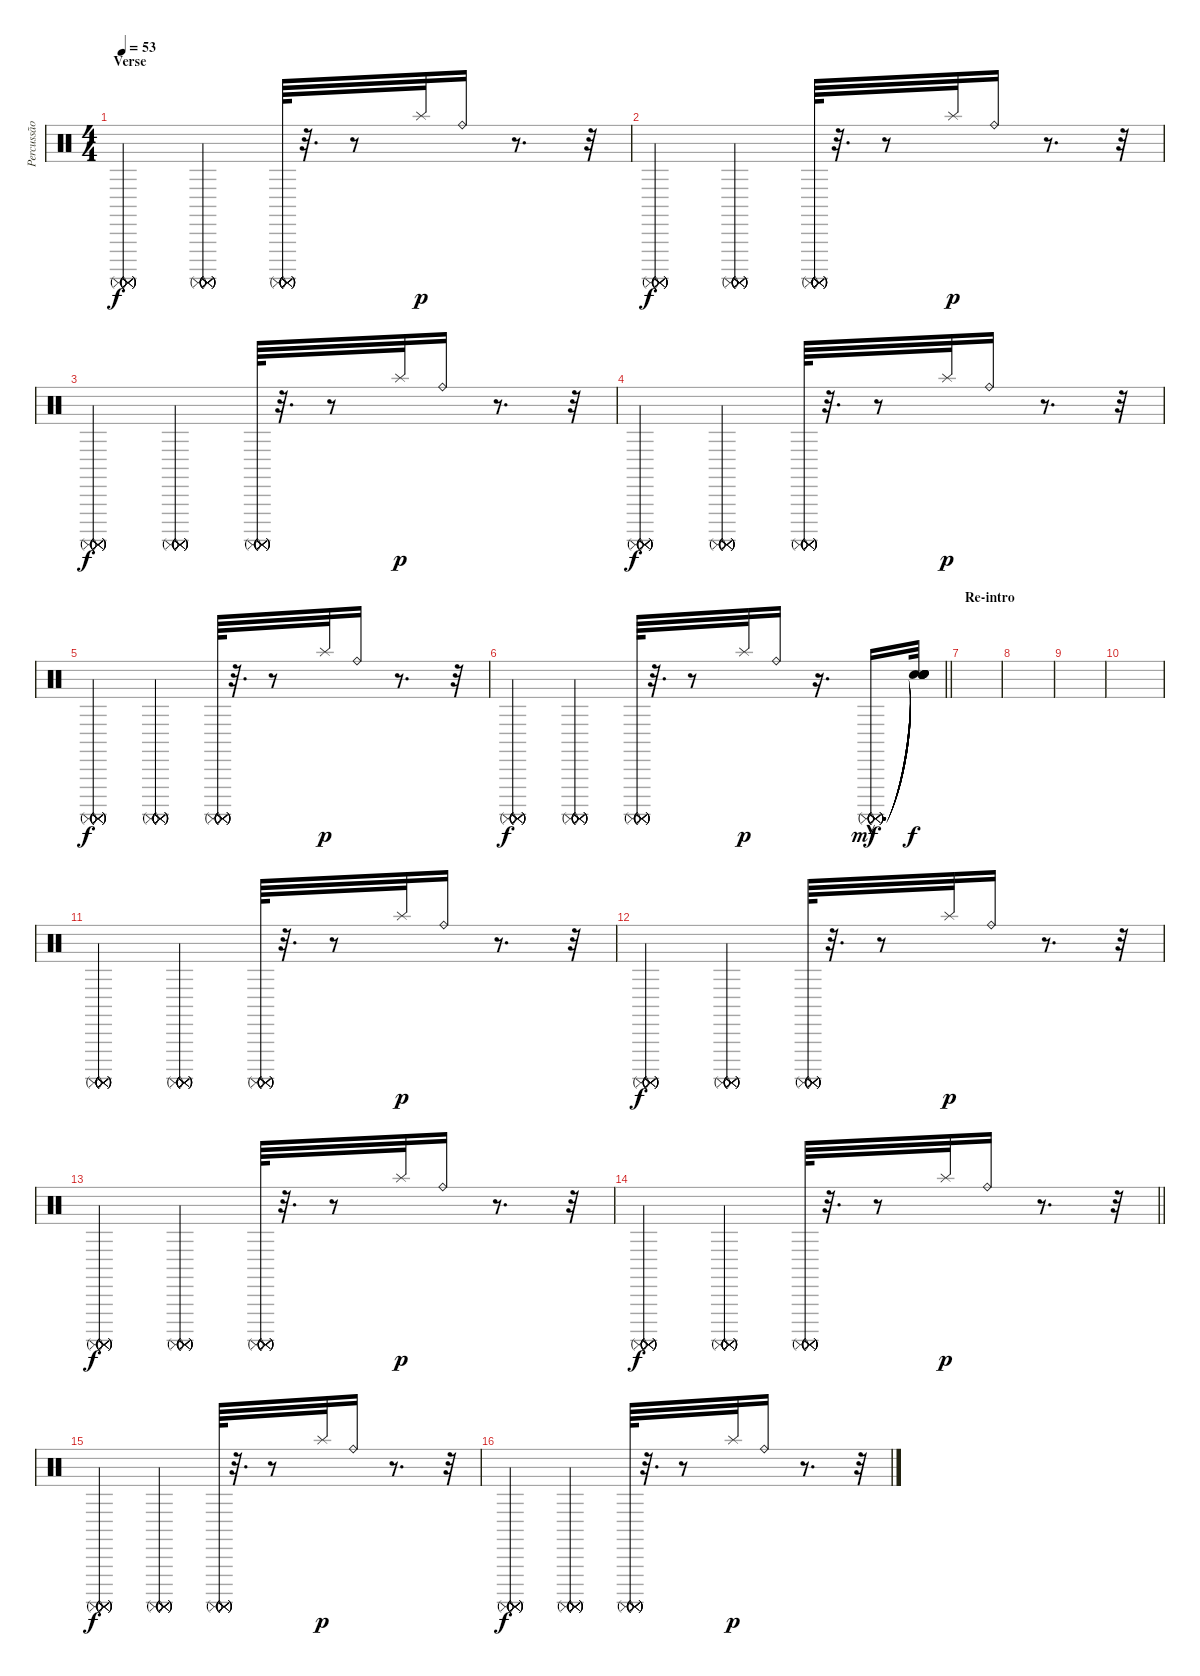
\track ("Percussão" "Percussão") {instrument percussion}
\staff {score}
\articulation defaults
\ts (4 4)
\section ("" "Verse")
\tempo 53
\clef neutral
\ks c
("Surdo (mute)" "Surdo (mute)" "Surdo (mute)" "Surdo (mute)" "Surdo (mute)" "Surdo (mute)").4{dy f} ("Surdo (mute)" "Surdo (mute)" "Surdo (mute)" "Surdo (mute)" "Surdo (mute)" "Surdo (mute)").4 ("Surdo (mute)" "Surdo (mute)" "Surdo (mute)" "Surdo (mute)" "Surdo (mute)" "Surdo (mute)").64 r.32{d} r.8 "Splash (hit)".32{dy p} "Ride (bell)".16 r.8{d} r.32 |
("Surdo (mute)" "Surdo (mute)" "Surdo (mute)" "Surdo (mute)" "Surdo (mute)" "Surdo (mute)").4{dy f} ("Surdo (mute)" "Surdo (mute)" "Surdo (mute)" "Surdo (mute)" "Surdo (mute)" "Surdo (mute)").4 ("Surdo (mute)" "Surdo (mute)" "Surdo (mute)" "Surdo (mute)" "Surdo (mute)" "Surdo (mute)").64 r.32{d} r.8 "Splash (hit)".32{dy p} "Ride (bell)".16 r.8{d} r.32 |
("Surdo (mute)" "Surdo (mute)" "Surdo (mute)" "Surdo (mute)" "Surdo (mute)" "Surdo (mute)").4{dy f} ("Surdo (mute)" "Surdo (mute)" "Surdo (mute)" "Surdo (mute)" "Surdo (mute)" "Surdo (mute)").4 ("Surdo (mute)" "Surdo (mute)" "Surdo (mute)" "Surdo (mute)" "Surdo (mute)" "Surdo (mute)").64 r.32{d} r.8 "Splash (hit)".32{dy p} "Ride (bell)".16 r.8{d} r.32 |
("Surdo (mute)" "Surdo (mute)" "Surdo (mute)" "Surdo (mute)" "Surdo (mute)" "Surdo (mute)").4{dy f} ("Surdo (mute)" "Surdo (mute)" "Surdo (mute)" "Surdo (mute)" "Surdo (mute)" "Surdo (mute)").4 ("Surdo (mute)" "Surdo (mute)" "Surdo (mute)" "Surdo (mute)" "Surdo (mute)" "Surdo (mute)").64 r.32{d} r.8 "Splash (hit)".32{dy p} "Ride (bell)".16 r.8{d} r.32 |
("Surdo (mute)" "Surdo (mute)" "Surdo (mute)" "Surdo (mute)" "Surdo (mute)" "Surdo (mute)").4{dy f} ("Surdo (mute)" "Surdo (mute)" "Surdo (mute)" "Surdo (mute)" "Surdo (mute)" "Surdo (mute)").4 ("Surdo (mute)" "Surdo (mute)" "Surdo (mute)" "Surdo (mute)" "Surdo (mute)" "Surdo (mute)").64 r.32{d} r.8 "Splash (hit)".32{dy p} "Ride (bell)".16 r.8{d} r.32 |
\barLineRight lightlight
("Surdo (mute)" "Surdo (mute)" "Surdo (mute)" "Surdo (mute)" "Surdo (mute)" "Surdo (mute)").4{dy f} ("Surdo (mute)" "Surdo (mute)" "Surdo (mute)" "Surdo (mute)" "Surdo (mute)" "Surdo (mute)").4 ("Surdo (mute)" "Surdo (mute)" "Surdo (mute)" "Surdo (mute)" "Surdo (mute)" "Surdo (mute)").64 r.32{d} r.8 "Splash (hit)".32{dy p} "Ride (bell)".16 r.16{d} ("Surdo (mute)"{hac} "Surdo (mute)"{hac} "Surdo (mute)"{hac} "Surdo (mute)"{hac} "Surdo (mute)"{hac} "Surdo (mute)"{hac}).16{d dy mf} ("Snare (hit)"{t} "Snare (hit)"{t} "Snare (hit)"{t} "Snare (hit)"{t} "Snare (hit)"{t} "Snare (hit)"{t}).32{dy f} |
\section ("" "Re-intro")
|
|
|
|
("Surdo (mute)" "Surdo (mute)" "Surdo (mute)" "Surdo (mute)" "Surdo (mute)" "Surdo (mute)").4 ("Surdo (mute)" "Surdo (mute)" "Surdo (mute)" "Surdo (mute)" "Surdo (mute)" "Surdo (mute)").4 ("Surdo (mute)" "Surdo (mute)" "Surdo (mute)" "Surdo (mute)" "Surdo (mute)" "Surdo (mute)").64 r.32{d} r.8 "Splash (hit)".32{dy p} "Ride (bell)".16 r.8{d} r.32 |
("Surdo (mute)" "Surdo (mute)" "Surdo (mute)" "Surdo (mute)" "Surdo (mute)" "Surdo (mute)").4{dy f} ("Surdo (mute)" "Surdo (mute)" "Surdo (mute)" "Surdo (mute)" "Surdo (mute)" "Surdo (mute)").4 ("Surdo (mute)" "Surdo (mute)" "Surdo (mute)" "Surdo (mute)" "Surdo (mute)" "Surdo (mute)").64 r.32{d} r.8 "Splash (hit)".32{dy p} "Ride (bell)".16 r.8{d} r.32 |
("Surdo (mute)" "Surdo (mute)" "Surdo (mute)" "Surdo (mute)" "Surdo (mute)" "Surdo (mute)").4{dy f} ("Surdo (mute)" "Surdo (mute)" "Surdo (mute)" "Surdo (mute)" "Surdo (mute)" "Surdo (mute)").4 ("Surdo (mute)" "Surdo (mute)" "Surdo (mute)" "Surdo (mute)" "Surdo (mute)" "Surdo (mute)").64 r.32{d} r.8 "Splash (hit)".32{dy p} "Ride (bell)".16 r.8{d} r.32 |
\barLineRight lightlight
("Surdo (mute)" "Surdo (mute)" "Surdo (mute)" "Surdo (mute)" "Surdo (mute)" "Surdo (mute)").4{dy f} ("Surdo (mute)" "Surdo (mute)" "Surdo (mute)" "Surdo (mute)" "Surdo (mute)" "Surdo (mute)").4 ("Surdo (mute)" "Surdo (mute)" "Surdo (mute)" "Surdo (mute)" "Surdo (mute)" "Surdo (mute)").64 r.32{d} r.8 "Splash (hit)".32{dy p} "Ride (bell)".16 r.8{d} r.32 |
("Surdo (mute)" "Surdo (mute)" "Surdo (mute)" "Surdo (mute)" "Surdo (mute)" "Surdo (mute)").4{dy f} ("Surdo (mute)" "Surdo (mute)" "Surdo (mute)" "Surdo (mute)" "Surdo (mute)" "Surdo (mute)").4 ("Surdo (mute)" "Surdo (mute)" "Surdo (mute)" "Surdo (mute)" "Surdo (mute)" "Surdo (mute)").64 r.32{d} r.8 "Splash (hit)".32{dy p} "Ride (bell)".16 r.8{d} r.32 |
("Surdo (mute)" "Surdo (mute)" "Surdo (mute)" "Surdo (mute)" "Surdo (mute)" "Surdo (mute)").4{dy f} ("Surdo (mute)" "Surdo (mute)" "Surdo (mute)" "Surdo (mute)" "Surdo (mute)" "Surdo (mute)").4 ("Surdo (mute)" "Surdo (mute)" "Surdo (mute)" "Surdo (mute)" "Surdo (mute)" "Surdo (mute)").64 r.32{d} r.8 "Splash (hit)".32{dy p} "Ride (bell)".16 r.8{d} r.32
